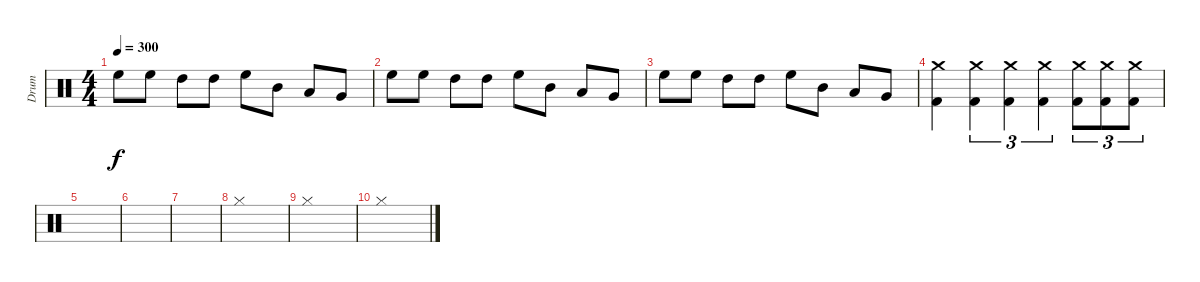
\track ("Drum" "Drum") {instrument percussion}
\staff {score}
\articulation defaults
\ts (4 4)
\tempo 300
\clef neutral
\ks c "High Floor Tom (hit)".8{dy f} "High Floor Tom (hit)".8 "High Tom (hit)".8 "High Tom (hit)".8 "High Floor Tom (hit)".8 "Mid Tom (hit)".8 "Low Tom (hit)".8 "Very Low Tom (hit)".8
|
"High Floor Tom (hit)".8 "High Floor Tom (hit)".8 "High Tom (hit)".8 "High Tom (hit)".8 "High Floor Tom (hit)".8 "Mid Tom (hit)".8 "Low Tom (hit)".8 "Very Low Tom (hit)".8 |
"High Floor Tom (hit)".8 "High Floor Tom (hit)".8 "High Tom (hit)".8 "High Tom (hit)".8 "High Floor Tom (hit)".8 "Mid Tom (hit)".8 "Low Tom (hit)".8 "Very Low Tom (hit)".8 |
("Crash medium (hit)" "Kick (hit) 2").4 ("Crash medium (hit)" "Kick (hit) 2").4{tu (3 2)} ("Crash medium (hit)" "Kick (hit) 2").4{tu (3 2)} ("Crash medium (hit)" "Kick (hit) 2").4{tu (3 2)} ("Crash medium (hit)" "Kick (hit) 2").8{tu (3 2)} ("Crash medium (hit)" "Kick (hit) 2").8{tu (3 2)} ("Crash medium (hit)" "Kick (hit) 2").8{tu (3 2)} |
|
|
|
"Hi-Hat (closed)".1 |
"Hi-Hat (closed)".1 |
"Hi-Hat (closed)".1
